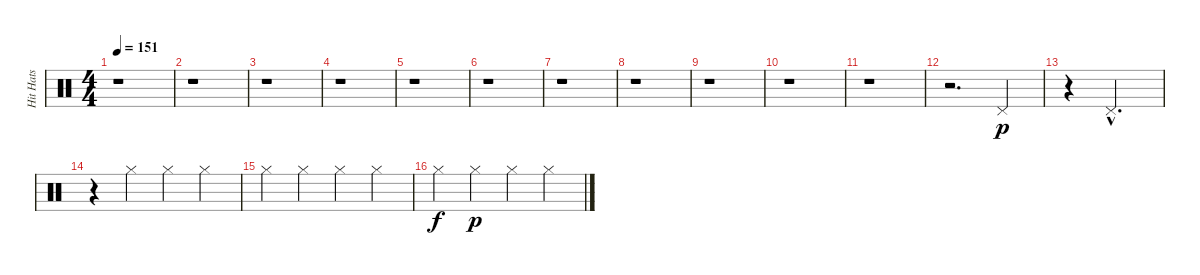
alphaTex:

\track ("Hit Hats" "Hit Hats") {instrument percussion}
\staff {score}
\articulation defaults
\ts (4 4)
\tempo 151
\clef neutral
\ks c
r.1{dy p} |
r.1 |
r.1 |
r.1 |
r.1 |
r.1 |
r.1 |
r.1 |
r.1 |
r.1 |
r.1 |
r.2{d} "Pedal Hi-Hat (hit)".4{volume 16} |
r.4 "Pedal Hi-Hat (hit)"{hac}.2{d} |
r.4 "Hi-Hat (closed)".4 "Hi-Hat (closed)".4 "Hi-Hat (closed)".4 |
"Hi-Hat (closed)".4 "Hi-Hat (closed)".4 "Hi-Hat (closed)".4 "Hi-Hat (closed)".4 |
"Hi-Hat (closed)".4{dy f} "Hi-Hat (closed)".4{dy p} "Hi-Hat (closed)".4 "Hi-Hat (closed)".4
